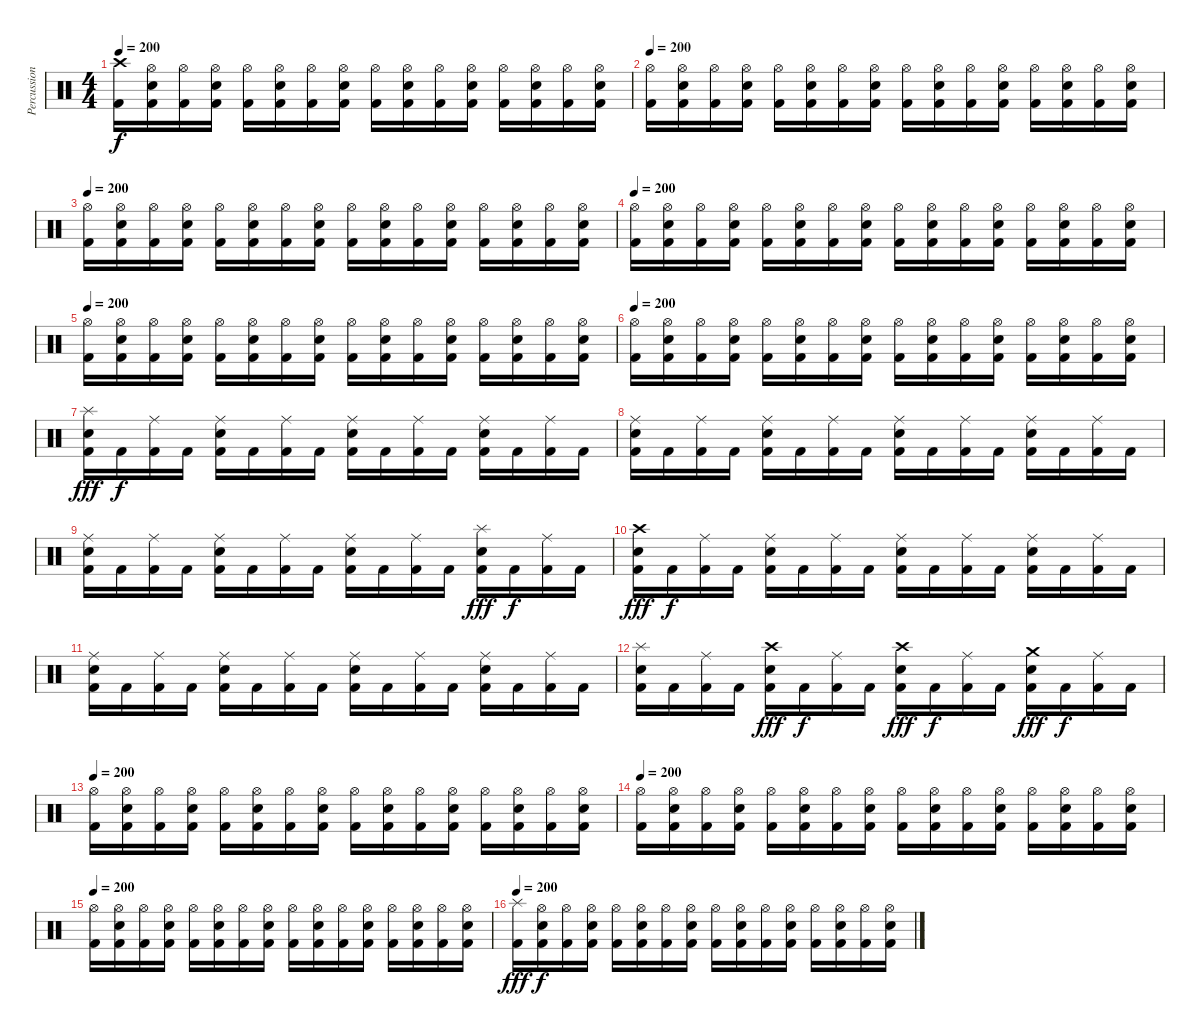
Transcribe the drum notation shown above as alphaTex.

\track ("Percussion" "Percussion") {instrument percussion}
\staff {score}
\articulation defaults
\ts (4 4)
\tempo 200
\clef neutral
\ks c
("Crash high (hit)" "Kick (hit) 2").16{dy f} ("Hi-Hat (open)" "Electric Snare (hit)" "Kick (hit) 2").16 ("Hi-Hat (open)" "Kick (hit) 2").16 ("Hi-Hat (open)" "Electric Snare (hit)" "Kick (hit) 2").16 ("Hi-Hat (open)" "Kick (hit) 2").16 ("Hi-Hat (open)" "Electric Snare (hit)" "Kick (hit) 2").16 ("Hi-Hat (open)" "Kick (hit) 2").16 ("Hi-Hat (open)" "Electric Snare (hit)" "Kick (hit) 2").16 ("Hi-Hat (open)" "Kick (hit) 2").16 ("Hi-Hat (open)" "Electric Snare (hit)" "Kick (hit) 2").16 ("Hi-Hat (open)" "Kick (hit) 2").16 ("Hi-Hat (open)" "Electric Snare (hit)" "Kick (hit) 2").16 ("Hi-Hat (open)" "Kick (hit) 2").16 ("Hi-Hat (open)" "Electric Snare (hit)" "Kick (hit) 2").16 ("Hi-Hat (open)" "Kick (hit) 2").16 ("Hi-Hat (open)" "Electric Snare (hit)" "Kick (hit) 2").16 |
\tempo 200
("Hi-Hat (open)" "Kick (hit) 2").16 ("Hi-Hat (open)" "Electric Snare (hit)" "Kick (hit) 2").16 ("Hi-Hat (open)" "Kick (hit) 2").16 ("Hi-Hat (open)" "Electric Snare (hit)" "Kick (hit) 2").16 ("Hi-Hat (open)" "Kick (hit) 2").16 ("Hi-Hat (open)" "Electric Snare (hit)" "Kick (hit) 2").16 ("Hi-Hat (open)" "Kick (hit) 2").16 ("Hi-Hat (open)" "Electric Snare (hit)" "Kick (hit) 2").16 ("Hi-Hat (open)" "Kick (hit) 2").16 ("Hi-Hat (open)" "Electric Snare (hit)" "Kick (hit) 2").16 ("Hi-Hat (open)" "Kick (hit) 2").16 ("Hi-Hat (open)" "Electric Snare (hit)" "Kick (hit) 2").16 ("Hi-Hat (open)" "Kick (hit) 2").16 ("Hi-Hat (open)" "Electric Snare (hit)" "Kick (hit) 2").16 ("Hi-Hat (open)" "Kick (hit) 2").16 ("Hi-Hat (open)" "Electric Snare (hit)" "Kick (hit) 2").16 |
\tempo 200
("Hi-Hat (open)" "Kick (hit) 2").16 ("Hi-Hat (open)" "Electric Snare (hit)" "Kick (hit) 2").16 ("Hi-Hat (open)" "Kick (hit) 2").16 ("Hi-Hat (open)" "Electric Snare (hit)" "Kick (hit) 2").16 ("Hi-Hat (open)" "Kick (hit) 2").16 ("Hi-Hat (open)" "Electric Snare (hit)" "Kick (hit) 2").16 ("Hi-Hat (open)" "Kick (hit) 2").16 ("Hi-Hat (open)" "Electric Snare (hit)" "Kick (hit) 2").16 ("Hi-Hat (open)" "Kick (hit) 2").16 ("Hi-Hat (open)" "Electric Snare (hit)" "Kick (hit) 2").16 ("Hi-Hat (open)" "Kick (hit) 2").16 ("Hi-Hat (open)" "Electric Snare (hit)" "Kick (hit) 2").16 ("Hi-Hat (open)" "Kick (hit) 2").16 ("Hi-Hat (open)" "Electric Snare (hit)" "Kick (hit) 2").16 ("Hi-Hat (open)" "Kick (hit) 2").16 ("Hi-Hat (open)" "Electric Snare (hit)" "Kick (hit) 2").16 |
\tempo 200
("Hi-Hat (open)" "Kick (hit) 2").16 ("Hi-Hat (open)" "Electric Snare (hit)" "Kick (hit) 2").16 ("Hi-Hat (open)" "Kick (hit) 2").16 ("Hi-Hat (open)" "Electric Snare (hit)" "Kick (hit) 2").16 ("Hi-Hat (open)" "Kick (hit) 2").16 ("Hi-Hat (open)" "Electric Snare (hit)" "Kick (hit) 2").16 ("Hi-Hat (open)" "Kick (hit) 2").16 ("Hi-Hat (open)" "Electric Snare (hit)" "Kick (hit) 2").16 ("Hi-Hat (open)" "Kick (hit) 2").16 ("Hi-Hat (open)" "Electric Snare (hit)" "Kick (hit) 2").16 ("Hi-Hat (open)" "Kick (hit) 2").16 ("Hi-Hat (open)" "Electric Snare (hit)" "Kick (hit) 2").16 ("Hi-Hat (open)" "Kick (hit) 2").16 ("Hi-Hat (open)" "Electric Snare (hit)" "Kick (hit) 2").16 ("Hi-Hat (open)" "Kick (hit) 2").16 ("Hi-Hat (open)" "Electric Snare (hit)" "Kick (hit) 2").16 |
\tempo 200
("Hi-Hat (open)" "Kick (hit) 2").16 ("Hi-Hat (open)" "Electric Snare (hit)" "Kick (hit) 2").16 ("Hi-Hat (open)" "Kick (hit) 2").16 ("Hi-Hat (open)" "Electric Snare (hit)" "Kick (hit) 2").16 ("Hi-Hat (open)" "Kick (hit) 2").16 ("Hi-Hat (open)" "Electric Snare (hit)" "Kick (hit) 2").16 ("Hi-Hat (open)" "Kick (hit) 2").16 ("Hi-Hat (open)" "Electric Snare (hit)" "Kick (hit) 2").16 ("Hi-Hat (open)" "Kick (hit) 2").16 ("Hi-Hat (open)" "Electric Snare (hit)" "Kick (hit) 2").16 ("Hi-Hat (open)" "Kick (hit) 2").16 ("Hi-Hat (open)" "Electric Snare (hit)" "Kick (hit) 2").16 ("Hi-Hat (open)" "Kick (hit) 2").16 ("Hi-Hat (open)" "Electric Snare (hit)" "Kick (hit) 2").16 ("Hi-Hat (open)" "Kick (hit) 2").16 ("Hi-Hat (open)" "Electric Snare (hit)" "Kick (hit) 2").16 |
\tempo 200
("Hi-Hat (open)" "Kick (hit) 2").16 ("Hi-Hat (open)" "Electric Snare (hit)" "Kick (hit) 2").16 ("Hi-Hat (open)" "Kick (hit) 2").16 ("Hi-Hat (open)" "Electric Snare (hit)" "Kick (hit) 2").16 ("Hi-Hat (open)" "Kick (hit) 2").16 ("Hi-Hat (open)" "Electric Snare (hit)" "Kick (hit) 2").16 ("Hi-Hat (open)" "Kick (hit) 2").16 ("Hi-Hat (open)" "Electric Snare (hit)" "Kick (hit) 2").16 ("Hi-Hat (open)" "Kick (hit) 2").16 ("Hi-Hat (open)" "Electric Snare (hit)" "Kick (hit) 2").16 ("Hi-Hat (open)" "Kick (hit) 2").16 ("Hi-Hat (open)" "Electric Snare (hit)" "Kick (hit) 2").16 ("Hi-Hat (open)" "Kick (hit) 2").16 ("Hi-Hat (open)" "Electric Snare (hit)" "Kick (hit) 2").16 ("Hi-Hat (open)" "Kick (hit) 2").16 ("Hi-Hat (open)" "Electric Snare (hit)" "Kick (hit) 2").16 |
("Splash (hit)" "Electric Snare (hit)" "Kick (hit) 2").16{dy fff} "Kick (hit) 2".16{dy f} ("Ride (middle)" "Kick (hit) 2").16 "Kick (hit) 2".16 ("Ride (middle)" "Electric Snare (hit)" "Kick (hit) 2").16 "Kick (hit) 2".16 ("Ride (middle)" "Kick (hit) 2").16 "Kick (hit) 2".16 ("Ride (middle)" "Electric Snare (hit)" "Kick (hit) 2").16 "Kick (hit) 2".16 ("Ride (middle)" "Kick (hit) 2").16 "Kick (hit) 2".16 ("Ride (middle)" "Electric Snare (hit)" "Kick (hit) 2").16 "Kick (hit) 2".16 ("Ride (middle)" "Kick (hit) 2").16 "Kick (hit) 2".16 |
("Ride (middle)" "Electric Snare (hit)" "Kick (hit) 2").16 "Kick (hit) 2".16 ("Ride (middle)" "Kick (hit) 2").16 "Kick (hit) 2".16 ("Ride (middle)" "Electric Snare (hit)" "Kick (hit) 2").16 "Kick (hit) 2".16 ("Ride (middle)" "Kick (hit) 2").16 "Kick (hit) 2".16 ("Ride (middle)" "Electric Snare (hit)" "Kick (hit) 2").16 "Kick (hit) 2".16 ("Ride (middle)" "Kick (hit) 2").16 "Kick (hit) 2".16 ("Ride (middle)" "Electric Snare (hit)" "Kick (hit) 2").16 "Kick (hit) 2".16 ("Ride (middle)" "Kick (hit) 2").16 "Kick (hit) 2".16 |
("Ride (middle)" "Electric Snare (hit)" "Kick (hit) 2").16 "Kick (hit) 2".16 ("Ride (middle)" "Kick (hit) 2").16 "Kick (hit) 2".16 ("Ride (middle)" "Electric Snare (hit)" "Kick (hit) 2").16 "Kick (hit) 2".16 ("Ride (middle)" "Kick (hit) 2").16 "Kick (hit) 2".16 ("Ride (middle)" "Electric Snare (hit)" "Kick (hit) 2").16 "Kick (hit) 2".16 ("Ride (middle)" "Kick (hit) 2").16 "Kick (hit) 2".16 ("Splash (hit)" "Electric Snare (hit)" "Kick (hit) 2").16{dy fff} "Kick (hit) 2".16{dy f} ("Ride (middle)" "Kick (hit) 2").16 "Kick (hit) 2".16 |
("Crash high (hit)" "Electric Snare (hit)" "Kick (hit) 2").16{dy fff} "Kick (hit) 2".16{dy f} ("Ride (middle)" "Kick (hit) 2").16 "Kick (hit) 2".16 ("Ride (middle)" "Electric Snare (hit)" "Kick (hit) 2").16 "Kick (hit) 2".16 ("Ride (middle)" "Kick (hit) 2").16 "Kick (hit) 2".16 ("Ride (middle)" "Electric Snare (hit)" "Kick (hit) 2").16 "Kick (hit) 2".16 ("Ride (middle)" "Kick (hit) 2").16 "Kick (hit) 2".16 ("Ride (middle)" "Electric Snare (hit)" "Kick (hit) 2").16 "Kick (hit) 2".16 ("Ride (middle)" "Kick (hit) 2").16 "Kick (hit) 2".16 |
("Ride (middle)" "Electric Snare (hit)" "Kick (hit) 2").16 "Kick (hit) 2".16 ("Ride (middle)" "Kick (hit) 2").16 "Kick (hit) 2".16 ("Ride (middle)" "Electric Snare (hit)" "Kick (hit) 2").16 "Kick (hit) 2".16 ("Ride (middle)" "Kick (hit) 2").16 "Kick (hit) 2".16 ("Ride (middle)" "Electric Snare (hit)" "Kick (hit) 2").16 "Kick (hit) 2".16 ("Ride (middle)" "Kick (hit) 2").16 "Kick (hit) 2".16 ("Ride (middle)" "Electric Snare (hit)" "Kick (hit) 2").16 "Kick (hit) 2".16 ("Ride (middle)" "Kick (hit) 2").16 "Kick (hit) 2".16 |
("Splash (hit)" "Electric Snare (hit)" "Kick (hit) 2").16 "Kick (hit) 2".16 ("Ride (middle)" "Kick (hit) 2").16 "Kick (hit) 2".16 ("Crash high (hit)" "Electric Snare (hit)" "Kick (hit) 2").16{dy fff} "Kick (hit) 2".16{dy f} ("Ride (middle)" "Kick (hit) 2").16 "Kick (hit) 2".16 ("Crash high (hit)" "Electric Snare (hit)" "Kick (hit) 2").16{dy fff} "Kick (hit) 2".16{dy f} ("Ride (middle)" "Kick (hit) 2").16 "Kick (hit) 2".16 ("Crash medium (hit)" "Electric Snare (hit)" "Kick (hit) 2").16{dy fff} "Kick (hit) 2".16{dy f} ("Ride (middle)" "Kick (hit) 2").16 "Kick (hit) 2".16 |
\tempo 200
("Hi-Hat (open)" "Kick (hit) 2").16 ("Hi-Hat (open)" "Electric Snare (hit)" "Kick (hit) 2").16 ("Hi-Hat (open)" "Kick (hit) 2").16 ("Hi-Hat (open)" "Electric Snare (hit)" "Kick (hit) 2").16 ("Hi-Hat (open)" "Kick (hit) 2").16 ("Hi-Hat (open)" "Electric Snare (hit)" "Kick (hit) 2").16 ("Hi-Hat (open)" "Kick (hit) 2").16 ("Hi-Hat (open)" "Electric Snare (hit)" "Kick (hit) 2").16 ("Hi-Hat (open)" "Kick (hit) 2").16 ("Hi-Hat (open)" "Electric Snare (hit)" "Kick (hit) 2").16 ("Hi-Hat (open)" "Kick (hit) 2").16 ("Hi-Hat (open)" "Electric Snare (hit)" "Kick (hit) 2").16 ("Hi-Hat (open)" "Kick (hit) 2").16 ("Hi-Hat (open)" "Electric Snare (hit)" "Kick (hit) 2").16 ("Hi-Hat (open)" "Kick (hit) 2").16 ("Hi-Hat (open)" "Electric Snare (hit)" "Kick (hit) 2").16 |
\tempo 200
("Hi-Hat (open)" "Kick (hit) 2").16 ("Hi-Hat (open)" "Electric Snare (hit)" "Kick (hit) 2").16 ("Hi-Hat (open)" "Kick (hit) 2").16 ("Hi-Hat (open)" "Electric Snare (hit)" "Kick (hit) 2").16 ("Hi-Hat (open)" "Kick (hit) 2").16 ("Hi-Hat (open)" "Electric Snare (hit)" "Kick (hit) 2").16 ("Hi-Hat (open)" "Kick (hit) 2").16 ("Hi-Hat (open)" "Electric Snare (hit)" "Kick (hit) 2").16 ("Hi-Hat (open)" "Kick (hit) 2").16 ("Hi-Hat (open)" "Electric Snare (hit)" "Kick (hit) 2").16 ("Hi-Hat (open)" "Kick (hit) 2").16 ("Hi-Hat (open)" "Electric Snare (hit)" "Kick (hit) 2").16 ("Hi-Hat (open)" "Kick (hit) 2").16 ("Hi-Hat (open)" "Electric Snare (hit)" "Kick (hit) 2").16 ("Hi-Hat (open)" "Kick (hit) 2").16 ("Hi-Hat (open)" "Electric Snare (hit)" "Kick (hit) 2").16 |
\tempo 200
("Hi-Hat (open)" "Kick (hit) 2").16 ("Hi-Hat (open)" "Electric Snare (hit)" "Kick (hit) 2").16 ("Hi-Hat (open)" "Kick (hit) 2").16 ("Hi-Hat (open)" "Electric Snare (hit)" "Kick (hit) 2").16 ("Hi-Hat (open)" "Kick (hit) 2").16 ("Hi-Hat (open)" "Electric Snare (hit)" "Kick (hit) 2").16 ("Hi-Hat (open)" "Kick (hit) 2").16 ("Hi-Hat (open)" "Electric Snare (hit)" "Kick (hit) 2").16 ("Hi-Hat (open)" "Kick (hit) 2").16 ("Hi-Hat (open)" "Electric Snare (hit)" "Kick (hit) 2").16 ("Hi-Hat (open)" "Kick (hit) 2").16 ("Hi-Hat (open)" "Electric Snare (hit)" "Kick (hit) 2").16 ("Hi-Hat (open)" "Kick (hit) 2").16 ("Hi-Hat (open)" "Electric Snare (hit)" "Kick (hit) 2").16 ("Hi-Hat (open)" "Kick (hit) 2").16 ("Hi-Hat (open)" "Electric Snare (hit)" "Kick (hit) 2").16 |
\tempo 200
("Splash (hit)" "Kick (hit) 2").16{dy fff} ("Hi-Hat (open)" "Electric Snare (hit)" "Kick (hit) 2").16{dy f} ("Hi-Hat (open)" "Kick (hit) 2").16 ("Hi-Hat (open)" "Electric Snare (hit)" "Kick (hit) 2").16 ("Hi-Hat (open)" "Kick (hit) 2").16 ("Hi-Hat (open)" "Electric Snare (hit)" "Kick (hit) 2").16 ("Hi-Hat (open)" "Kick (hit) 2").16 ("Hi-Hat (open)" "Electric Snare (hit)" "Kick (hit) 2").16 ("Hi-Hat (open)" "Kick (hit) 2").16 ("Hi-Hat (open)" "Electric Snare (hit)" "Kick (hit) 2").16 ("Hi-Hat (open)" "Kick (hit) 2").16 ("Hi-Hat (open)" "Electric Snare (hit)" "Kick (hit) 2").16 ("Hi-Hat (open)" "Kick (hit) 2").16 ("Hi-Hat (open)" "Electric Snare (hit)" "Kick (hit) 2").16 ("Hi-Hat (open)" "Kick (hit) 2").16 ("Hi-Hat (open)" "Electric Snare (hit)" "Kick (hit) 2").16
